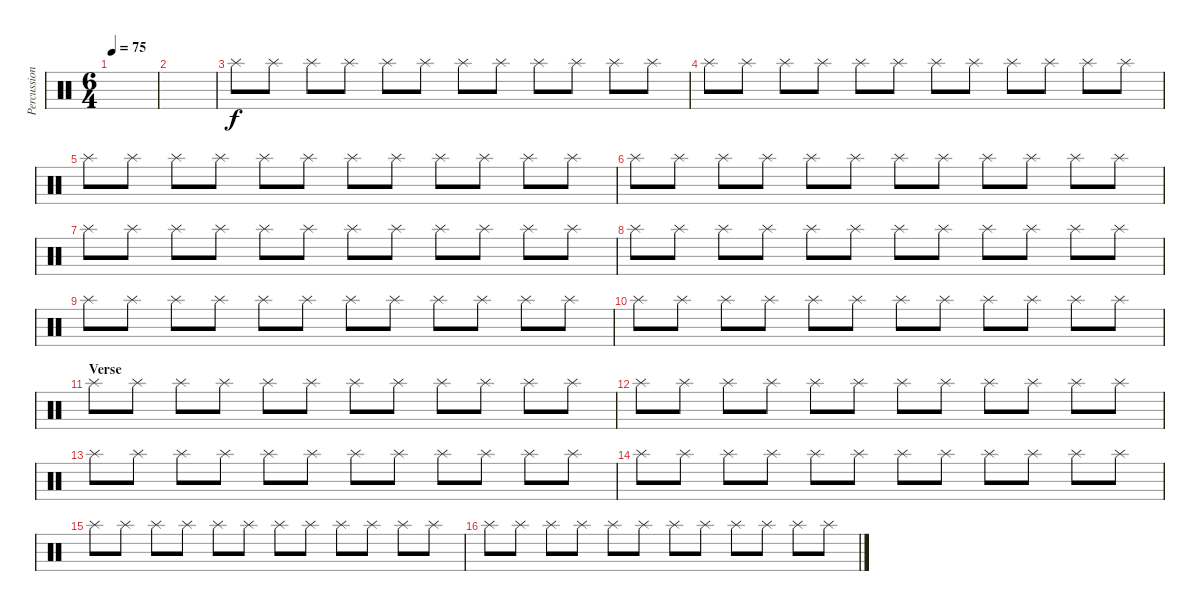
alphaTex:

\track ("Percussion" "Percussion") {instrument percussion}
\staff {score}
\articulation defaults
\ts (6 4)
\tempo 75
\clef neutral
\ks c
|
|
"Splash (hit)".8{volume 2} "Splash (hit)".8 "Splash (hit)".8 "Splash (hit)".8 "Splash (hit)".8 "Splash (hit)".8 "Splash (hit)".8 "Splash (hit)".8 "Splash (hit)".8 "Splash (hit)".8 "Splash (hit)".8 "Splash (hit)".8 |
"Splash (hit)".8 "Splash (hit)".8 "Splash (hit)".8 "Splash (hit)".8 "Splash (hit)".8 "Splash (hit)".8 "Splash (hit)".8 "Splash (hit)".8 "Splash (hit)".8 "Splash (hit)".8 "Splash (hit)".8 "Splash (hit)".8 |
"Splash (hit)".8 "Splash (hit)".8 "Splash (hit)".8 "Splash (hit)".8 "Splash (hit)".8 "Splash (hit)".8 "Splash (hit)".8 "Splash (hit)".8 "Splash (hit)".8 "Splash (hit)".8 "Splash (hit)".8 "Splash (hit)".8 |
"Splash (hit)".8 "Splash (hit)".8 "Splash (hit)".8 "Splash (hit)".8 "Splash (hit)".8 "Splash (hit)".8 "Splash (hit)".8 "Splash (hit)".8 "Splash (hit)".8 "Splash (hit)".8 "Splash (hit)".8 "Splash (hit)".8 |
"Splash (hit)".8 "Splash (hit)".8 "Splash (hit)".8 "Splash (hit)".8 "Splash (hit)".8 "Splash (hit)".8 "Splash (hit)".8 "Splash (hit)".8 "Splash (hit)".8 "Splash (hit)".8 "Splash (hit)".8 "Splash (hit)".8 |
"Splash (hit)".8 "Splash (hit)".8 "Splash (hit)".8 "Splash (hit)".8 "Splash (hit)".8 "Splash (hit)".8 "Splash (hit)".8 "Splash (hit)".8 "Splash (hit)".8 "Splash (hit)".8 "Splash (hit)".8 "Splash (hit)".8 |
"Splash (hit)".8 "Splash (hit)".8 "Splash (hit)".8 "Splash (hit)".8 "Splash (hit)".8 "Splash (hit)".8 "Splash (hit)".8 "Splash (hit)".8 "Splash (hit)".8 "Splash (hit)".8 "Splash (hit)".8 "Splash (hit)".8 |
"Splash (hit)".8 "Splash (hit)".8 "Splash (hit)".8 "Splash (hit)".8 "Splash (hit)".8 "Splash (hit)".8 "Splash (hit)".8 "Splash (hit)".8 "Splash (hit)".8 "Splash (hit)".8 "Splash (hit)".8 "Splash (hit)".8 |
\section ("" "Verse")
"Splash (hit)".8 "Splash (hit)".8 "Splash (hit)".8 "Splash (hit)".8 "Splash (hit)".8 "Splash (hit)".8 "Splash (hit)".8 "Splash (hit)".8 "Splash (hit)".8 "Splash (hit)".8 "Splash (hit)".8 "Splash (hit)".8 |
"Splash (hit)".8 "Splash (hit)".8 "Splash (hit)".8 "Splash (hit)".8 "Splash (hit)".8 "Splash (hit)".8 "Splash (hit)".8 "Splash (hit)".8 "Splash (hit)".8 "Splash (hit)".8 "Splash (hit)".8 "Splash (hit)".8 |
"Splash (hit)".8 "Splash (hit)".8 "Splash (hit)".8 "Splash (hit)".8 "Splash (hit)".8 "Splash (hit)".8 "Splash (hit)".8 "Splash (hit)".8 "Splash (hit)".8 "Splash (hit)".8 "Splash (hit)".8 "Splash (hit)".8 |
"Splash (hit)".8 "Splash (hit)".8 "Splash (hit)".8 "Splash (hit)".8 "Splash (hit)".8 "Splash (hit)".8 "Splash (hit)".8 "Splash (hit)".8 "Splash (hit)".8 "Splash (hit)".8 "Splash (hit)".8 "Splash (hit)".8 |
"Splash (hit)".8 "Splash (hit)".8 "Splash (hit)".8 "Splash (hit)".8 "Splash (hit)".8 "Splash (hit)".8 "Splash (hit)".8 "Splash (hit)".8 "Splash (hit)".8 "Splash (hit)".8 "Splash (hit)".8 "Splash (hit)".8 |
"Splash (hit)".8 "Splash (hit)".8 "Splash (hit)".8 "Splash (hit)".8 "Splash (hit)".8 "Splash (hit)".8 "Splash (hit)".8 "Splash (hit)".8 "Splash (hit)".8 "Splash (hit)".8 "Splash (hit)".8 "Splash (hit)".8
